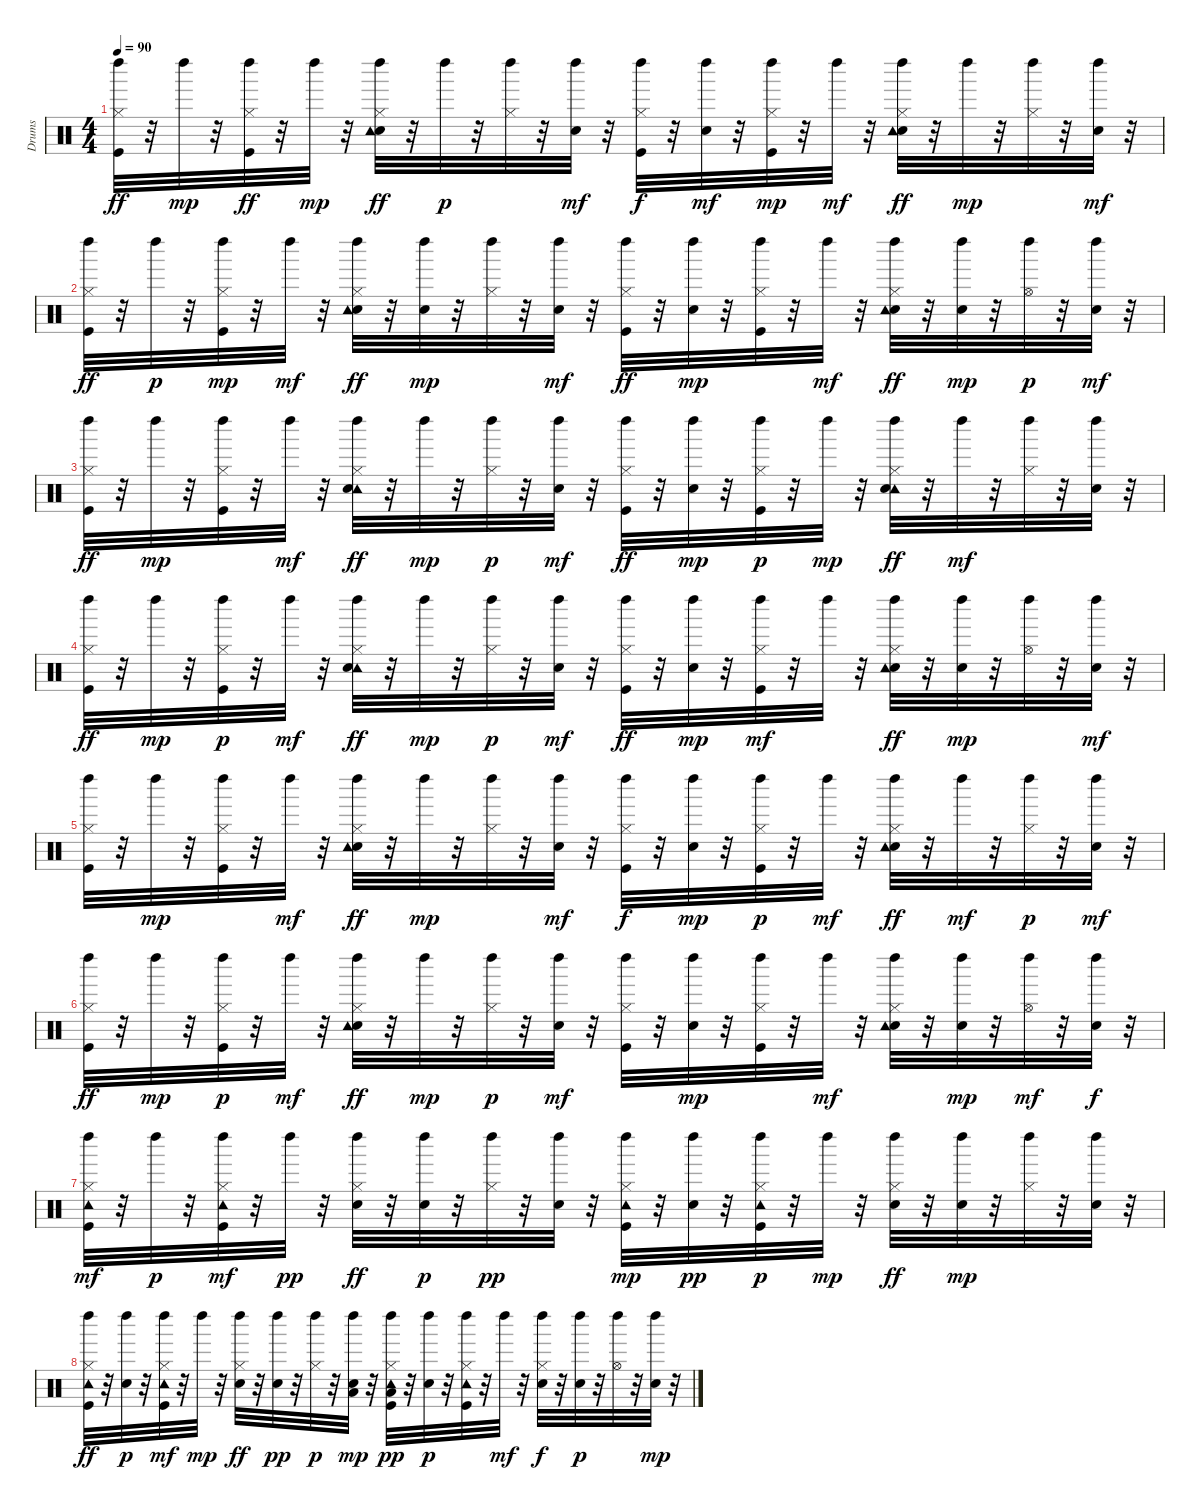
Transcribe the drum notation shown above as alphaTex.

\track ("Drums" "Drums") {instrument percussion}
\staff {score}
\articulation defaults
\ts (4 4)
\tempo 90
\clef neutral
\ks c
("Left Maraca (hit)" "Hi-Hat (closed)" "Kick (hit)").32{dy ff} r.32 "Left Maraca (hit)".32{dy mp} r.32 ("Hi-Hat (closed)" "Left Maraca (hit)" "Kick (hit)").32{dy ff} r.32 "Left Maraca (hit)".32{dy mp} r.32 ("Hi-Hat (closed)" "Electric Snare (hit)" "Tambourine (hit)" "Left Maraca (hit)").32{dy ff} r.32 "Left Maraca (hit)".32{dy p} r.32 ("Hi-Hat (closed)" "Left Maraca (hit)").32 r.32 ("Electric Snare (hit)" "Left Maraca (hit)").32{dy mf} r.32 ("Kick (hit)" "Hi-Hat (closed)" "Left Maraca (hit)").32{dy f} r.32 ("Left Maraca (hit)" "Electric Snare (hit)").32{dy mf} r.32 ("Hi-Hat (closed)" "Kick (hit)" "Left Maraca (hit)").32{dy mp} r.32 "Left Maraca (hit)".32{dy mf} r.32 ("Hi-Hat (closed)" "Electric Snare (hit)" "Tambourine (hit)" "Left Maraca (hit)").32{dy ff} r.32 "Left Maraca (hit)".32{dy mp} r.32 ("Hi-Hat (closed)" "Left Maraca (hit)").32 r.32 ("Electric Snare (hit)" "Left Maraca (hit)").32{dy mf} r.32 |
("Kick (hit)" "Left Maraca (hit)" "Hi-Hat (closed)").32{dy ff} r.32 "Left Maraca (hit)".32{dy p} r.32 ("Kick (hit)" "Left Maraca (hit)" "Hi-Hat (closed)").32{dy mp} r.32 "Left Maraca (hit)".32{dy mf} r.32 ("Electric Snare (hit)" "Tambourine (hit)" "Hi-Hat (closed)" "Left Maraca (hit)").32{dy ff} r.32 ("Electric Snare (hit)" "Left Maraca (hit)").32{dy mp} r.32 ("Hi-Hat (closed)" "Left Maraca (hit)").32 r.32 ("Electric Snare (hit)" "Left Maraca (hit)").32{dy mf} r.32 ("Kick (hit)" "Hi-Hat (closed)" "Left Maraca (hit)").32{dy ff} r.32 ("Electric Snare (hit)" "Left Maraca (hit)").32{dy mp} r.32 ("Kick (hit)" "Left Maraca (hit)" "Hi-Hat (closed)").32 r.32 "Left Maraca (hit)".32{dy mf} r.32 ("Hi-Hat (closed)" "Electric Snare (hit)" "Tambourine (hit)" "Left Maraca (hit)").32{dy ff} r.32 ("Electric Snare (hit)" "Left Maraca (hit)").32{dy mp} r.32 ("Hi-Hat (open)" "Left Maraca (hit)").32{dy p} r.32 ("Electric Snare (hit)" "Left Maraca (hit)").32{dy mf} r.32 |
("Hi-Hat (closed)" "Left Maraca (hit)" "Kick (hit)").32{dy ff} r.32 "Left Maraca (hit)".32{dy mp} r.32 ("Hi-Hat (closed)" "Kick (hit)" "Left Maraca (hit)").32 r.32 "Left Maraca (hit)".32{dy mf} r.32 ("Tambourine (hit)" "Hi-Hat (closed)" "Electric Snare (hit)" "Left Maraca (hit)").32{dy ff} r.32 "Left Maraca (hit)".32{dy mp} r.32 ("Hi-Hat (closed)" "Left Maraca (hit)").32{dy p} r.32 ("Left Maraca (hit)" "Electric Snare (hit)").32{dy mf} r.32 ("Kick (hit)" "Hi-Hat (closed)" "Left Maraca (hit)").32{dy ff} r.32 ("Electric Snare (hit)" "Left Maraca (hit)").32{dy mp} r.32 ("Hi-Hat (closed)" "Kick (hit)" "Left Maraca (hit)").32{dy p} r.32 "Left Maraca (hit)".32{dy mp} r.32 ("Tambourine (hit)" "Hi-Hat (closed)" "Electric Snare (hit)" "Left Maraca (hit)").32{dy ff} r.32 "Left Maraca (hit)".32{dy mf} r.32 ("Left Maraca (hit)" "Hi-Hat (closed)").32 r.32 ("Left Maraca (hit)" "Electric Snare (hit)").32 r.32 |
("Kick (hit)" "Hi-Hat (closed)" "Left Maraca (hit)").32{dy ff} r.32 "Left Maraca (hit)".32{dy mp} r.32 ("Kick (hit)" "Hi-Hat (closed)" "Left Maraca (hit)").32{dy p} r.32 "Left Maraca (hit)".32{dy mf} r.32 ("Tambourine (hit)" "Electric Snare (hit)" "Hi-Hat (closed)" "Left Maraca (hit)").32{dy ff} r.32 "Left Maraca (hit)".32{dy mp} r.32 ("Hi-Hat (closed)" "Left Maraca (hit)").32{dy p} r.32 ("Electric Snare (hit)" "Left Maraca (hit)").32{dy mf} r.32 ("Hi-Hat (closed)" "Kick (hit)" "Left Maraca (hit)").32{dy ff} r.32 ("Electric Snare (hit)" "Left Maraca (hit)").32{dy mp} r.32 ("Hi-Hat (closed)" "Kick (hit)" "Left Maraca (hit)").32{dy mf} r.32 "Left Maraca (hit)".32 r.32 ("Hi-Hat (closed)" "Electric Snare (hit)" "Tambourine (hit)" "Left Maraca (hit)").32{dy ff} r.32 ("Electric Snare (hit)" "Left Maraca (hit)").32{dy mp} r.32 ("Hi-Hat (open)" "Left Maraca (hit)").32 r.32 ("Electric Snare (hit)" "Left Maraca (hit)").32{dy mf} r.32 |
("Left Maraca (hit)" "Kick (hit)" "Hi-Hat (closed)").32 r.32 "Left Maraca (hit)".32{dy mp} r.32 ("Kick (hit)" "Hi-Hat (closed)" "Left Maraca (hit)").32 r.32 "Left Maraca (hit)".32{dy mf} r.32 ("Electric Snare (hit)" "Hi-Hat (closed)" "Tambourine (hit)" "Left Maraca (hit)").32{dy ff} r.32 "Left Maraca (hit)".32{dy mp} r.32 ("Hi-Hat (closed)" "Left Maraca (hit)").32 r.32 ("Electric Snare (hit)" "Left Maraca (hit)").32{dy mf} r.32 ("Hi-Hat (closed)" "Kick (hit)" "Left Maraca (hit)").32{dy f} r.32 ("Electric Snare (hit)" "Left Maraca (hit)").32{dy mp} r.32 ("Hi-Hat (closed)" "Kick (hit)" "Left Maraca (hit)").32{dy p} r.32 "Left Maraca (hit)".32{dy mf} r.32 ("Electric Snare (hit)" "Tambourine (hit)" "Left Maraca (hit)" "Hi-Hat (closed)").32{dy ff} r.32 "Left Maraca (hit)".32{dy mf} r.32 ("Hi-Hat (closed)" "Left Maraca (hit)").32{dy p} r.32 ("Electric Snare (hit)" "Left Maraca (hit)").32{dy mf} r.32 |
("Kick (hit)" "Left Maraca (hit)" "Hi-Hat (closed)").32{dy ff} r.32 "Left Maraca (hit)".32{dy mp} r.32 ("Kick (hit)" "Hi-Hat (closed)" "Left Maraca (hit)").32{dy p} r.32 "Left Maraca (hit)".32{dy mf} r.32 ("Left Maraca (hit)" "Hi-Hat (closed)" "Electric Snare (hit)" "Tambourine (hit)").32{dy ff} r.32 "Left Maraca (hit)".32{dy mp} r.32 ("Hi-Hat (closed)" "Left Maraca (hit)").32{dy p} r.32 ("Electric Snare (hit)" "Left Maraca (hit)").32{dy mf} r.32 ("Kick (hit)" "Left Maraca (hit)" "Hi-Hat (closed)").32 r.32 ("Electric Snare (hit)" "Left Maraca (hit)").32{dy mp} r.32 ("Hi-Hat (closed)" "Kick (hit)" "Left Maraca (hit)").32 r.32 "Left Maraca (hit)".32{dy mf} r.32 ("Hi-Hat (closed)" "Electric Snare (hit)" "Tambourine (hit)" "Left Maraca (hit)").32 r.32 ("Electric Snare (hit)" "Left Maraca (hit)").32{dy mp} r.32 ("Hi-Hat (open)" "Left Maraca (hit)").32{dy mf} r.32 ("Electric Snare (hit)" "Left Maraca (hit)").32{dy f} r.32 |
("Kick (hit)" "Tambourine (hit)" "Left Maraca (hit)" "Hi-Hat (closed)").32{dy mf} r.32 "Left Maraca (hit)".32{dy p} r.32 ("Tambourine (hit)" "Left Maraca (hit)" "Hi-Hat (closed)" "Kick (hit)").32{dy mf} r.32 "Left Maraca (hit)".32{dy pp} r.32 ("Electric Snare (hit)" "Left Maraca (hit)" "Hi-Hat (closed)").32{dy ff} r.32 ("Left Maraca (hit)" "Electric Snare (hit)").32{dy p} r.32 ("Hi-Hat (closed)" "Left Maraca (hit)").32{dy pp} r.32 ("Electric Snare (hit)" "Left Maraca (hit)").32 r.32 ("Tambourine (hit)" "Hi-Hat (closed)" "Kick (hit)" "Left Maraca (hit)").32{dy mp} r.32 ("Electric Snare (hit)" "Left Maraca (hit)").32{dy pp} r.32 ("Hi-Hat (closed)" "Kick (hit)" "Tambourine (hit)" "Left Maraca (hit)").32{dy p} r.32 "Left Maraca (hit)".32{dy mp} r.32 ("Left Maraca (hit)" "Hi-Hat (closed)" "Electric Snare (hit)").32{dy ff} r.32 ("Left Maraca (hit)" "Electric Snare (hit)").32{dy mp} r.32 ("Hi-Hat (closed)" "Left Maraca (hit)").32 r.32 ("Electric Snare (hit)" "Left Maraca (hit)").32 r.32 |
("Tambourine (hit)" "Left Maraca (hit)" "Hi-Hat (closed)" "Kick (hit)").32{dy ff} r.32 ("Electric Snare (hit)" "Left Maraca (hit)").32{dy p} r.32 ("Tambourine (hit)" "Left Maraca (hit)" "Hi-Hat (closed)" "Kick (hit)").32{dy mf} r.32 "Left Maraca (hit)".32{dy mp} r.32 ("Electric Snare (hit)" "Hi-Hat (closed)" "Left Maraca (hit)").32{dy ff} r.32 ("Left Maraca (hit)" "Electric Snare (hit)").32{dy pp} r.32 ("Hi-Hat (closed)" "Left Maraca (hit)").32{dy p} r.32 ("Electric Snare (hit)" "Low Tom (hit)" "Left Maraca (hit)").32{dy mp} r.32 ("Tambourine (hit)" "Low Floor Tom (hit)" "Hi-Hat (closed)" "Kick (hit)" "Left Maraca (hit)").32{dy pp} r.32 ("Electric Snare (hit)" "Left Maraca (hit)").32{dy p} r.32 ("Kick (hit)" "Hi-Hat (closed)" "Tambourine (hit)" "Left Maraca (hit)").32 r.32 "Left Maraca (hit)".32{dy mf} r.32 ("Electric Snare (hit)" "Hi-Hat (closed)" "Left Maraca (hit)").32{dy f} r.32 ("Electric Snare (hit)" "Left Maraca (hit)").32{dy p} r.32 ("Hi-Hat (open)" "Left Maraca (hit)").32 r.32 ("Electric Snare (hit)" "Left Maraca (hit)").32{dy mp} r.32
